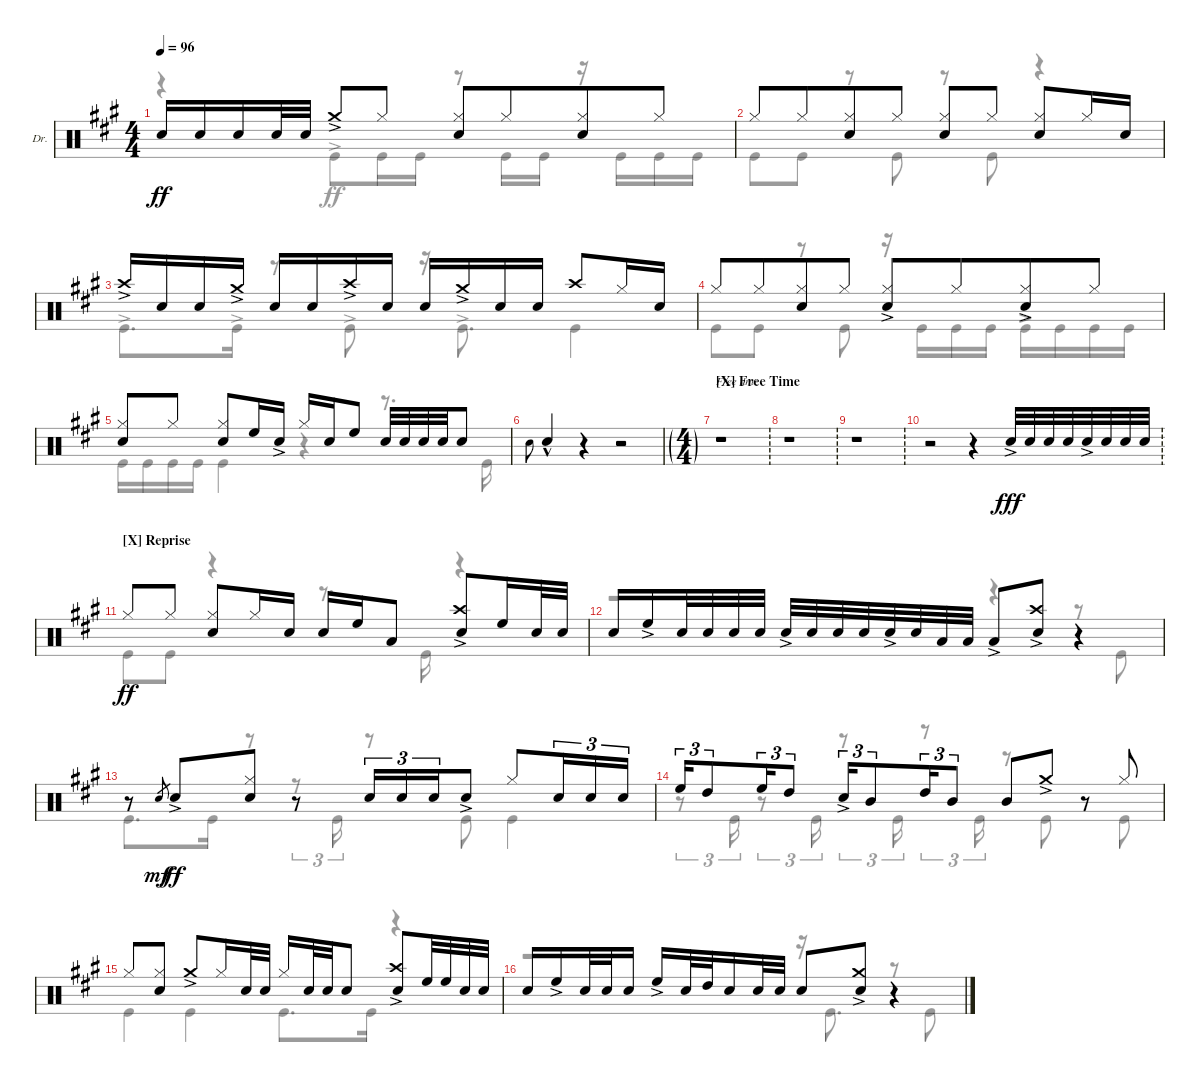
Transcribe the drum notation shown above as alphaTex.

\defaultSystemsLayout 4
\bracketExtendMode groupsimilarinstruments
\firstSystemTrackNameOrientation horizontal
\otherSystemsTrackNameOrientation horizontal
\track ("Drums" "Dr.") {instrument percussion}
\staff {score}
\articulation defaults
\voice
\ts (4 4)
\tempo 96
\clef neutral
\ks a "Snare (hit) 2".16{dy ff} "Snare (hit) 2".16 "Snare (hit) 2".16 "Snare (hit) 2".32 "Snare (hit) 2".32 "Crash medium (hit)"{ac}.8 "Hi-Hat (closed)".8
("Hi-Hat (closed)" "Snare (hit) 2").8 "Hi-Hat (closed)".8{beam merge} ("Hi-Hat (closed)" "Snare (hit) 2").8 "Hi-Hat (closed)".8 |
"Hi-Hat (closed)".8 "Hi-Hat (closed)".8{beam merge} ("Hi-Hat (closed)" "Snare (hit) 2").8 "Hi-Hat (closed)".8 ("Hi-Hat (closed)" "Snare (hit) 2").8 "Hi-Hat (closed)".8{beam split} ("Hi-Hat (closed)" "Snare (hit) 2").8 "Hi-Hat (closed)".16 "Snare (hit) 2".16 |
"Crash high (hit)"{ac}.16 "Snare (hit) 2".16 "Snare (hit) 2".16 "Crash medium (hit)"{ac}.16 "Snare (hit) 2".16 "Snare (hit) 2".16 "Crash high (hit)"{ac}.16 "Snare (hit) 2".16 "Snare (hit) 2".16 "Crash medium (hit)"{ac}.16 "Snare (hit) 2".16 "Snare (hit) 2".16 "Crash high (hit)".8 "Hi-Hat (closed)".16 "Snare (hit) 2".16 |
"Hi-Hat (closed)".8 "Hi-Hat (closed)".8{beam merge} ("Hi-Hat (closed)" "Snare (hit) 2").8 "Hi-Hat (closed)".8 ("Hi-Hat (closed)"{ac} "Snare (hit) 2"{ac}).8 "Hi-Hat (closed)".8{beam merge} ("Hi-Hat (closed)"{ac} "Snare (hit) 2"{ac}).8 "Hi-Hat (closed)".8 |
("Hi-Hat (closed)" "Snare (hit) 2").8 "Hi-Hat (closed)".8 ("Hi-Hat (closed)" "Snare (hit) 2").8 "High Floor Tom (hit)".16 "Snare (hit) 2"{ac}.16 "Hi-Hat (closed)".16 "Snare (hit) 2".16 "High Floor Tom (hit)".8 "Snare (hit) 2".32 "Snare (hit) 2".32 "Snare (hit) 2".32 "Snare (hit) 2".32 "Snare (hit) 2".8 |
"Snare (hit) 2".8{gr onbeat beam invert} "Snare (hit) 2"{hac}.4{beam invert} r.4 r.2 |
\ft
\section ("X" "Free Time")
r.1 |
\ft
r.1 |
\ft
r.1 |
\ft
r.2 r.4 "Snare (hit) 2"{ac}.32{dy fff beam invert} "Snare (hit) 2".32 "Snare (hit) 2".32 "Snare (hit) 2".32 "Snare (hit) 2"{ac}.32 "Snare (hit) 2".32 "Snare (hit) 2".32 "Snare (hit) 2".32 |
\section ("X" "Reprise")
"Hi-Hat (closed)".8{dy ff} "Hi-Hat (closed)".8 ("Hi-Hat (closed)" "Snare (hit) 2").8 "Hi-Hat (closed)".16 "Snare (hit) 2".16 "Snare (hit) 2".16 "High Floor Tom (hit)".16 "Low Tom (hit)".8 ("Snare (hit) 2" "Crash high (hit)"{ac}).8 "High Floor Tom (hit)".16 "Snare (hit) 2".32 "Snare (hit) 2".32 |
"Snare (hit) 2".16 "High Floor Tom (hit)"{ac}.16 "Snare (hit) 2".32 "Snare (hit) 2".32 "Snare (hit) 2".32 "Snare (hit) 2".32 "Snare (hit) 2"{ac}.32 "Snare (hit) 2".32 "Snare (hit) 2".32 "Snare (hit) 2".32 "Snare (hit) 2"{ac}.32 "Snare (hit) 2".32 "Low Tom (hit)".32 "Low Tom (hit)".32 "Low Tom (hit)"{ac}.8 ("Snare (hit) 2"{ac} "Crash high (hit)"{ac}).8 r.4 |
r.8 "Snare (hit) 2".8{gr dy mf} "Snare (hit) 2"{ac}.8{dy ff beam merge} ("Snare (hit) 2" "Hi-Hat (closed)").8 r.8 "Snare (hit) 2".16{tu (3 2)} "Snare (hit) 2".16{tu (3 2)} "Snare (hit) 2".16{tu (3 2) beam merge} "Snare (hit) 2"{ac}.8 "Hi-Hat (closed)".8{beam merge} "Snare (hit) 2".16{tu (3 2)} "Snare (hit) 2".16{tu (3 2)} "Snare (hit) 2".16{tu (3 2)} |
"High Floor Tom (hit)".16{tu (3 2)} "High Tom (hit)".8{tu (3 2) beam merge} "High Floor Tom (hit)".16{tu (3 2)} "High Tom (hit)".8{tu (3 2)} "Snare (hit) 2"{ac}.16{tu (3 2)} "Mid Tom (hit)".8{tu (3 2) beam merge} "High Tom (hit)".16{tu (3 2)} "Mid Tom (hit)".8{tu (3 2)} "Mid Tom (hit)".8 "Crash medium (hit)"{ac}.8 r.8 "Hi-Hat (closed)".8 |
"Hi-Hat (closed)".8 ("Hi-Hat (closed)" "Snare (hit) 2").8 "Crash medium (hit)"{ac}.8 "Hi-Hat (closed)".16 "Snare (hit) 2".32 "Snare (hit) 2".32 "Hi-Hat (closed)".16 "Snare (hit) 2".32 "Snare (hit) 2".32 "Snare (hit) 2".8 ("Snare (hit) 2" "Crash high (hit)"{ac}).8 "High Floor Tom (hit)".32 "High Floor Tom (hit)".32 "Snare (hit) 2".32 "Snare (hit) 2".32 |
"Snare (hit) 2".16 "High Floor Tom (hit)"{ac}.16 "Snare (hit) 2".32 "Snare (hit) 2".32 "Snare (hit) 2".16 "High Floor Tom (hit)"{ac}.16 "Snare (hit) 2".32 "High Tom (hit)".32 "Snare (hit) 2".16 "Snare (hit) 2".32 "Snare (hit) 2".32 "Snare (hit) 2".8 ("Snare (hit) 2"{ac} "Crash medium (hit)"{ac}).8 r.4
\voice
\clef neutral
\ottava regular
\simile none
\ks a
r.4{dy ff} "Kick (hit)"{ac}.8 "Kick (hit)".16 "Kick (hit)".16 r.8 "Kick (hit)".16 "Kick (hit)".16 r.16 "Kick (hit)".16 "Kick (hit)".16 "Kick (hit)".16 |
"Kick (hit)".8 "Kick (hit)".8 r.8 "Kick (hit)".8 r.8 "Kick (hit)".8 r.4 |
"Kick (hit)"{ac}.8{d} "Kick (hit)"{ac}.16 r.8 "Kick (hit)"{ac}.8 r.16 "Kick (hit)"{ac}.8{d} "Kick (hit)".4 |
"Kick (hit)".8 "Kick (hit)".8 r.8 "Kick (hit)".8 r.16 "Kick (hit)".16 "Kick (hit)".16 "Kick (hit)".16 "Kick (hit)"{ac}.16 "Kick (hit)".16 "Kick (hit)".16 "Kick (hit)".16 |
"Kick (hit)".16 "Kick (hit)".16 "Kick (hit)".16 "Kick (hit)".16 "Kick (hit)".4 r.4 r.8{d} "Kick (hit)".16 |
|
|
|
|
|
"Kick (hit)".8 "Kick (hit)".8 r.4 r.8{d} "Kick (hit)".16 r.4 |
r.2 r.4 r.8 "Kick (hit)".8 |
"Kick (hit)".8{d} "Kick (hit)".16 r.8 r.8{tu (3 2)} "Kick (hit)".16{tu (3 2)} r.8 "Kick (hit)".8 "Kick (hit)".4 |
r.8{tu (3 2)} "Kick (hit)".16{tu (3 2)} r.8{tu (3 2)} "Kick (hit)".16{tu (3 2)} r.8{tu (3 2)} "Kick (hit)".16{tu (3 2)} r.8{tu (3 2)} "Kick (hit)".16{tu (3 2)} r.8 "Kick (hit)".8 r.8 "Kick (hit)".8 |
"Kick (hit)".4 "Kick (hit)".4 "Kick (hit)".8{d} "Kick (hit)".16 r.4 |
r.2 r.16 "Kick (hit)".8{d} r.8 "Kick (hit)".8
